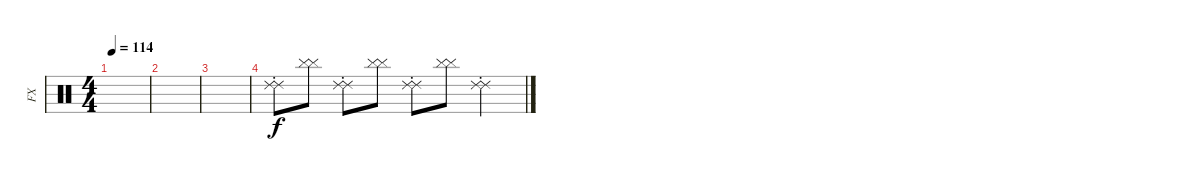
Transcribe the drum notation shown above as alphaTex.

\track ("FX" "FX") {instrument percussion}
\staff {score}
\articulation defaults
\ts (4 4)
\tempo 114
\clef neutral
\ks c
|
|
|
("Ride (choke) 2" "Ride (choke) 2").8 ("Cymbal (hit)" "Cymbal (hit)").8 ("Ride (choke) 2" "Ride (choke) 2").8 ("Cymbal (hit)" "Cymbal (hit)").8 ("Ride (choke) 2" "Ride (choke) 2").8 ("Cymbal (hit)" "Cymbal (hit)").8 ("Ride (choke) 2" "Ride (choke) 2").4
